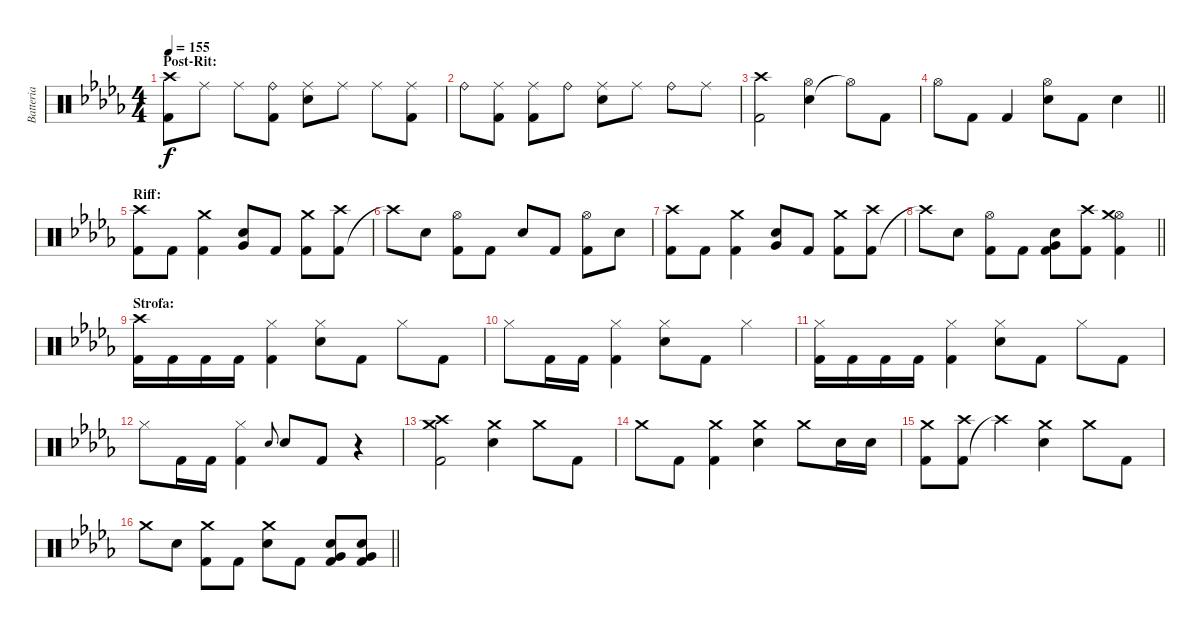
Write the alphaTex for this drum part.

\track ("Batteria" "Batteria") {instrument percussion}
\staff {score}
\articulation defaults
\ts (4 4)
\section ("" "Post-Rit:")
\tempo 155
\clef neutral
\ks bbminor
("Kick (hit) 2" "Crash high (hit)").8{dy f} "Ride (middle)".8 "Ride (middle)".8 ("Kick (hit) 2" "Ride (bell)").8 ("Snare (hit) 2" "Ride (middle)").8 "Ride (middle)".8 "Ride (middle)".8 ("Kick (hit) 2" "Ride (middle)").8 |
"Ride (bell)".8 ("Kick (hit) 2" "Ride (middle)").8 ("Kick (hit) 2" "Ride (middle)").8 "Ride (bell)".8 ("Snare (hit) 2" "Ride (middle)").8 "Ride (middle)".8 "Ride (bell)".8 "Ride (middle)".8 |
("Kick (hit) 2" "Crash high (hit)").2 ("Snare (hit) 2" "Hi-Hat (open)").4 "Hi-Hat (open)"{t}.8 "Kick (hit) 2".8 |
\barLineRight lightlight "Hi-Hat (open)".8 "Kick (hit) 2".8 "Kick (hit) 2".4
("Snare (hit) 2" "Hi-Hat (open)").8 "Kick (hit) 2".8 "Snare (hit) 2".4 |
\section ("" "Riff:")
("Kick (hit) 2" "Crash high (hit)").8 "Kick (hit) 2".8 ("Kick (hit) 2" "Crash medium (hit)").4 ("Snare (hit) 2" "Very Low Tom (hit)").8 "Kick (hit) 2".8 ("Kick (hit) 2" "Crash medium (hit)").8 ("Kick (hit) 2" "Crash high (hit)").8 |
"Crash high (hit)"{t}.8 "Snare (hit) 2".8 ("Kick (hit) 2" "Hi-Hat (open)").8 "Kick (hit) 2".8 "Snare (hit) 2".8 "Kick (hit) 2".8 ("Kick (hit) 2" "Hi-Hat (open)").8 "Snare (hit) 2".8 |
("Kick (hit) 2" "Crash high (hit)").8 "Kick (hit) 2".8 ("Kick (hit) 2" "Crash medium (hit)").4 ("Snare (hit) 2" "Very Low Tom (hit)").8 "Kick (hit) 2".8 ("Kick (hit) 2" "Crash medium (hit)").8 ("Kick (hit) 2" "Crash high (hit)").8 |
\barLineRight lightlight "Crash high (hit)"{t}.8 "Snare (hit) 2".8
("Kick (hit) 2" "Hi-Hat (open)").8 "Kick (hit) 2".8 ("Kick (hit) 2" "Snare (hit) 2" "Very Low Tom (hit)").8 ("Kick (hit) 2" "Crash high (hit)").8 ("Kick (hit) 2" "Hi-Hat (open)" "Crash medium (hit)").4 |
\section ("" "Strofa:")
("Kick (hit) 2" "Crash high (hit)").16 "Kick (hit) 2".16 "Kick (hit) 2".16 "Kick (hit) 2".16 ("Kick (hit) 2" "Hi-Hat (closed)").4 ("Snare (hit) 2" "Hi-Hat (closed)").8 "Kick (hit) 2".8 "Hi-Hat (closed)".8 "Kick (hit) 2".8 |
"Hi-Hat (closed)".8 "Kick (hit) 2".16 "Kick (hit) 2".16 ("Kick (hit) 2" "Hi-Hat (closed)").4 ("Snare (hit) 2" "Hi-Hat (closed)").8 "Kick (hit) 2".8 "Hi-Hat (closed)".4 |
("Kick (hit) 2" "Hi-Hat (closed)").16 "Kick (hit) 2".16 "Kick (hit) 2".16 "Kick (hit) 2".16 ("Kick (hit) 2" "Hi-Hat (closed)").4 ("Snare (hit) 2" "Hi-Hat (closed)").8 "Kick (hit) 2".8 "Hi-Hat (closed)".8 "Kick (hit) 2".8 |
"Hi-Hat (closed)".8 "Kick (hit) 2".16 "Kick (hit) 2".16 ("Kick (hit) 2" "Hi-Hat (closed)").4 "Snare (hit) 2".8{gr onbeat} "Snare (hit) 2".8 "Kick (hit) 2".8 r.4 |
("Kick (hit) 2" "Crash medium (hit)" "Crash high (hit)").2 ("Snare (hit) 2" "Crash medium (hit)").4 "Crash medium (hit)".8 "Kick (hit) 2".8 |
"Crash medium (hit)".8 "Kick (hit) 2".8 ("Kick (hit) 2" "Crash medium (hit)").4 ("Snare (hit) 2" "Crash medium (hit)").4 "Crash medium (hit)".8 "Snare (hit) 2".16 "Snare (hit) 2".16 |
("Kick (hit) 2" "Crash medium (hit)").8 ("Kick (hit) 2" "Crash high (hit)").8 "Crash high (hit)"{t}.4 ("Snare (hit) 2" "Crash medium (hit)").4 "Crash medium (hit)".8 "Kick (hit) 2".8 |
\barLineRight lightlight "Crash medium (hit)".8 "Snare (hit) 2".8
("Kick (hit) 2" "Crash medium (hit)").8 "Kick (hit) 2".8 ("Snare (hit) 2" "Crash medium (hit)").8 "Kick (hit) 2".8 ("Kick (hit) 2" "Snare (hit) 2" "Very Low Tom (hit)").8 ("Kick (hit) 2" "Snare (hit) 2" "Very Low Tom (hit)").8
